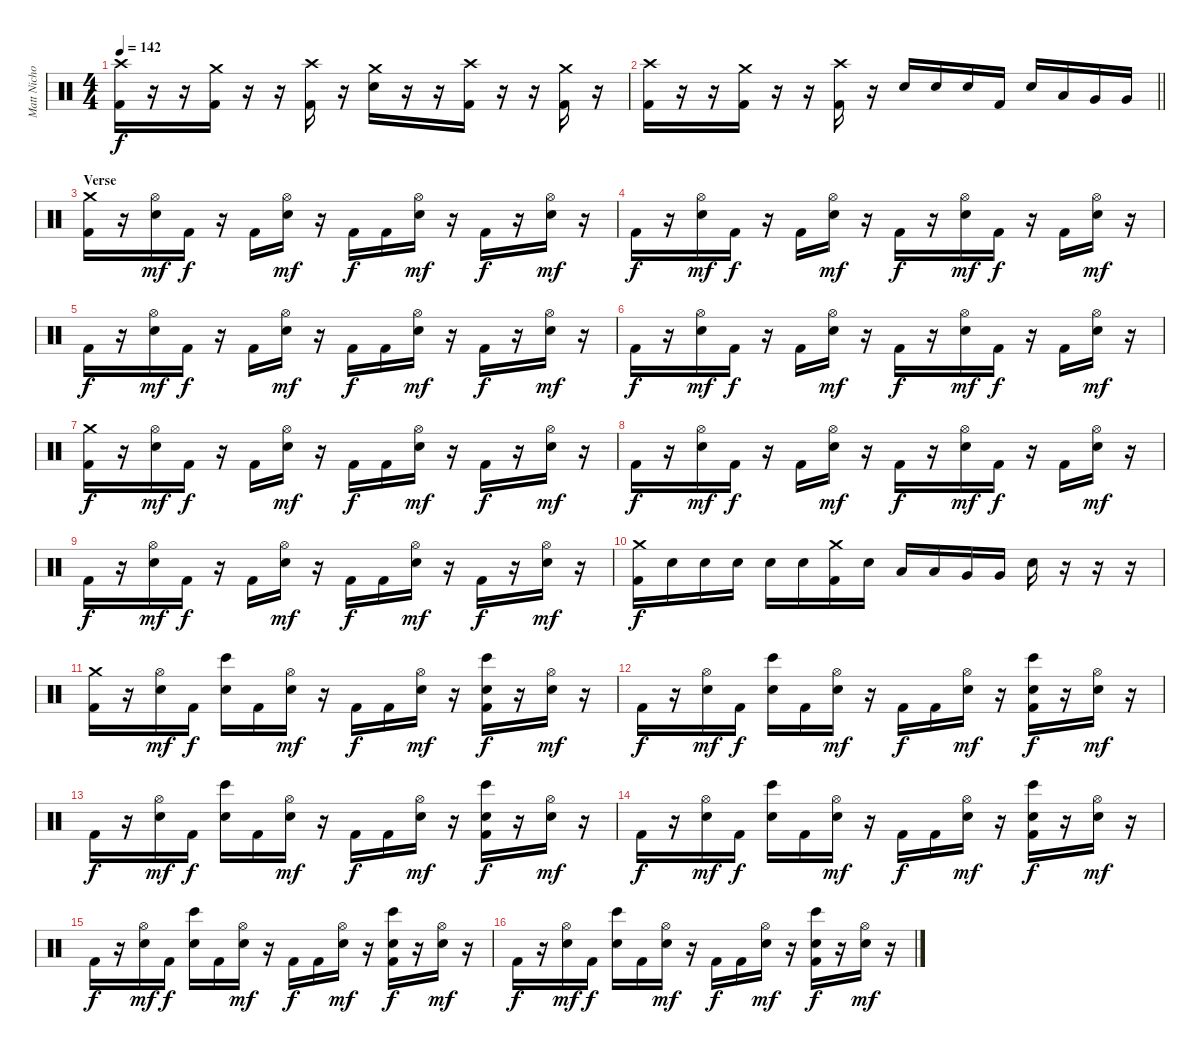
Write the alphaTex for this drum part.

\track ("Matt Nicholls" "Matt Nicho") {instrument percussion}
\staff {score}
\articulation defaults
\ts (4 4)
\tempo 142
\clef neutral
\ks c
("Crash high (hit)" "Kick (hit) 2").16{dy f} r.16 r.16 ("Crash medium (hit)" "Kick (hit) 2").16 r.16 r.16 ("Crash high (hit)" "Kick (hit) 2").16 r.16 ("Crash medium (hit)" "Electric Snare (hit)").16 r.16 r.16 ("Crash high (hit)" "Kick (hit) 2").16 r.16 r.16 ("Crash medium (hit)" "Kick (hit) 2").16 r.16 |
\barLineRight lightlight
("Crash high (hit)" "Kick (hit) 2").16 r.16 r.16 ("Crash medium (hit)" "Kick (hit) 2").16 r.16 r.16 ("Crash high (hit)" "Kick (hit) 2").16 r.16 "Electric Snare (hit)".16 "Electric Snare (hit)".16 "Electric Snare (hit)".16 "Kick (hit) 2".16 "Electric Snare (hit)".16 "Low Tom (hit)".16 "Very Low Tom (hit)".16 "Very Low Tom (hit)".16 |
\section ("" "Verse ")
("Crash medium (hit)" "Kick (hit) 2").16 r.16 ("Hi-Hat (open)" "Electric Snare (hit)").16{dy mf} "Kick (hit) 2".16{dy f} r.16 "Kick (hit) 2".16 ("Hi-Hat (open)" "Electric Snare (hit)").16{dy mf} r.16 "Kick (hit) 2".16{dy f} "Kick (hit) 2".16 ("Hi-Hat (open)" "Electric Snare (hit)").16{dy mf} r.16 "Kick (hit) 2".16{dy f} r.16 ("Hi-Hat (open)" "Electric Snare (hit)").16{dy mf} r.16 |
"Kick (hit) 2".16{dy f} r.16 ("Hi-Hat (open)" "Electric Snare (hit)").16{dy mf} "Kick (hit) 2".16{dy f} r.16 "Kick (hit) 2".16 ("Hi-Hat (open)" "Electric Snare (hit)").16{dy mf} r.16 "Kick (hit) 2".16{dy f} r.16 ("Hi-Hat (open)" "Electric Snare (hit)").16{dy mf} "Kick (hit) 2".16{dy f} r.16 "Kick (hit) 2".16 ("Hi-Hat (open)" "Electric Snare (hit)").16{dy mf} r.16 |
"Kick (hit) 2".16{dy f} r.16 ("Hi-Hat (open)" "Electric Snare (hit)").16{dy mf} "Kick (hit) 2".16{dy f} r.16 "Kick (hit) 2".16 ("Hi-Hat (open)" "Electric Snare (hit)").16{dy mf} r.16 "Kick (hit) 2".16{dy f} "Kick (hit) 2".16 ("Hi-Hat (open)" "Electric Snare (hit)").16{dy mf} r.16 "Kick (hit) 2".16{dy f} r.16 ("Hi-Hat (open)" "Electric Snare (hit)").16{dy mf} r.16 |
"Kick (hit) 2".16{dy f} r.16 ("Hi-Hat (open)" "Electric Snare (hit)").16{dy mf} "Kick (hit) 2".16{dy f} r.16 "Kick (hit) 2".16 ("Hi-Hat (open)" "Electric Snare (hit)").16{dy mf} r.16 "Kick (hit) 2".16{dy f} r.16 ("Hi-Hat (open)" "Electric Snare (hit)").16{dy mf} "Kick (hit) 2".16{dy f} r.16 "Kick (hit) 2".16 ("Hi-Hat (open)" "Electric Snare (hit)").16{dy mf} r.16 |
("Crash medium (hit)" "Kick (hit) 2").16{dy f} r.16 ("Hi-Hat (open)" "Electric Snare (hit)").16{dy mf} "Kick (hit) 2".16{dy f} r.16 "Kick (hit) 2".16 ("Hi-Hat (open)" "Electric Snare (hit)").16{dy mf} r.16 "Kick (hit) 2".16{dy f} "Kick (hit) 2".16 ("Hi-Hat (open)" "Electric Snare (hit)").16{dy mf} r.16 "Kick (hit) 2".16{dy f} r.16 ("Hi-Hat (open)" "Electric Snare (hit)").16{dy mf} r.16 |
"Kick (hit) 2".16{dy f} r.16 ("Hi-Hat (open)" "Electric Snare (hit)").16{dy mf} "Kick (hit) 2".16{dy f} r.16 "Kick (hit) 2".16 ("Hi-Hat (open)" "Electric Snare (hit)").16{dy mf} r.16 "Kick (hit) 2".16{dy f} r.16 ("Hi-Hat (open)" "Electric Snare (hit)").16{dy mf} "Kick (hit) 2".16{dy f} r.16 "Kick (hit) 2".16 ("Hi-Hat (open)" "Electric Snare (hit)").16{dy mf} r.16 |
"Kick (hit) 2".16{dy f} r.16 ("Hi-Hat (open)" "Electric Snare (hit)").16{dy mf} "Kick (hit) 2".16{dy f} r.16 "Kick (hit) 2".16 ("Hi-Hat (open)" "Electric Snare (hit)").16{dy mf} r.16 "Kick (hit) 2".16{dy f} "Kick (hit) 2".16 ("Hi-Hat (open)" "Electric Snare (hit)").16{dy mf} r.16 "Kick (hit) 2".16{dy f} r.16 ("Hi-Hat (open)" "Electric Snare (hit)").16{dy mf} r.16 |
("Crash medium (hit)" "Kick (hit) 2").16{dy f} "Electric Snare (hit)".16 "Electric Snare (hit)".16 "Electric Snare (hit)".16 "Electric Snare (hit)".16 "Electric Snare (hit)".16 ("Crash medium (hit)" "Kick (hit) 2").16 "Electric Snare (hit)".16 "Low Tom (hit)".16 "Low Tom (hit)".16 "Very Low Tom (hit)".16 "Very Low Tom (hit)".16 "Electric Snare (hit)".16 r.16 r.16 r.16 |
("Crash medium (hit)" "Kick (hit) 2").16 r.16 ("Hi-Hat (open)" "Electric Snare (hit)").16{dy mf} "Kick (hit) 2".16{dy f} ("Hand Clap (hit)" "Bongo High (hit)").16 "Kick (hit) 2".16 ("Hi-Hat (open)" "Electric Snare (hit)").16{dy mf} r.16 "Kick (hit) 2".16{dy f} "Kick (hit) 2".16 ("Hi-Hat (open)" "Electric Snare (hit)").16{dy mf} r.16 ("Hand Clap (hit)" "Bongo High (hit)" "Kick (hit) 2").16{dy f} r.16 ("Hi-Hat (open)" "Electric Snare (hit)").16{dy mf} r.16 |
"Kick (hit) 2".16{dy f} r.16 ("Hi-Hat (open)" "Electric Snare (hit)").16{dy mf} "Kick (hit) 2".16{dy f} ("Hand Clap (hit)" "Bongo High (hit)").16 "Kick (hit) 2".16 ("Hi-Hat (open)" "Electric Snare (hit)").16{dy mf} r.16 "Kick (hit) 2".16{dy f} "Kick (hit) 2".16 ("Hi-Hat (open)" "Electric Snare (hit)").16{dy mf} r.16 ("Hand Clap (hit)" "Bongo High (hit)" "Kick (hit) 2").16{dy f} r.16 ("Hi-Hat (open)" "Electric Snare (hit)").16{dy mf} r.16 |
"Kick (hit) 2".16{dy f} r.16 ("Hi-Hat (open)" "Electric Snare (hit)").16{dy mf} "Kick (hit) 2".16{dy f} ("Hand Clap (hit)" "Bongo High (hit)").16 "Kick (hit) 2".16 ("Hi-Hat (open)" "Electric Snare (hit)").16{dy mf} r.16 "Kick (hit) 2".16{dy f} "Kick (hit) 2".16 ("Hi-Hat (open)" "Electric Snare (hit)").16{dy mf} r.16 ("Hand Clap (hit)" "Bongo High (hit)" "Kick (hit) 2").16{dy f} r.16 ("Hi-Hat (open)" "Electric Snare (hit)").16{dy mf} r.16 |
"Kick (hit) 2".16{dy f} r.16 ("Hi-Hat (open)" "Electric Snare (hit)").16{dy mf} "Kick (hit) 2".16{dy f} ("Hand Clap (hit)" "Bongo High (hit)").16 "Kick (hit) 2".16 ("Hi-Hat (open)" "Electric Snare (hit)").16{dy mf} r.16 "Kick (hit) 2".16{dy f} "Kick (hit) 2".16 ("Hi-Hat (open)" "Electric Snare (hit)").16{dy mf} r.16 ("Hand Clap (hit)" "Bongo High (hit)" "Kick (hit) 2").16{dy f} r.16 ("Hi-Hat (open)" "Electric Snare (hit)").16{dy mf} r.16 |
"Kick (hit) 2".16{dy f} r.16 ("Hi-Hat (open)" "Electric Snare (hit)").16{dy mf} "Kick (hit) 2".16{dy f} ("Hand Clap (hit)" "Bongo High (hit)").16 "Kick (hit) 2".16 ("Hi-Hat (open)" "Electric Snare (hit)").16{dy mf} r.16 "Kick (hit) 2".16{dy f} "Kick (hit) 2".16 ("Hi-Hat (open)" "Electric Snare (hit)").16{dy mf} r.16 ("Hand Clap (hit)" "Bongo High (hit)" "Kick (hit) 2").16{dy f} r.16 ("Hi-Hat (open)" "Electric Snare (hit)").16{dy mf} r.16 |
"Kick (hit) 2".16{dy f} r.16 ("Hi-Hat (open)" "Electric Snare (hit)").16{dy mf} "Kick (hit) 2".16{dy f} ("Hand Clap (hit)" "Bongo High (hit)").16 "Kick (hit) 2".16 ("Hi-Hat (open)" "Electric Snare (hit)").16{dy mf} r.16 "Kick (hit) 2".16{dy f} "Kick (hit) 2".16 ("Hi-Hat (open)" "Electric Snare (hit)").16{dy mf} r.16 ("Hand Clap (hit)" "Bongo High (hit)" "Kick (hit) 2").16{dy f} r.16 ("Hi-Hat (open)" "Electric Snare (hit)").16{dy mf} r.16
